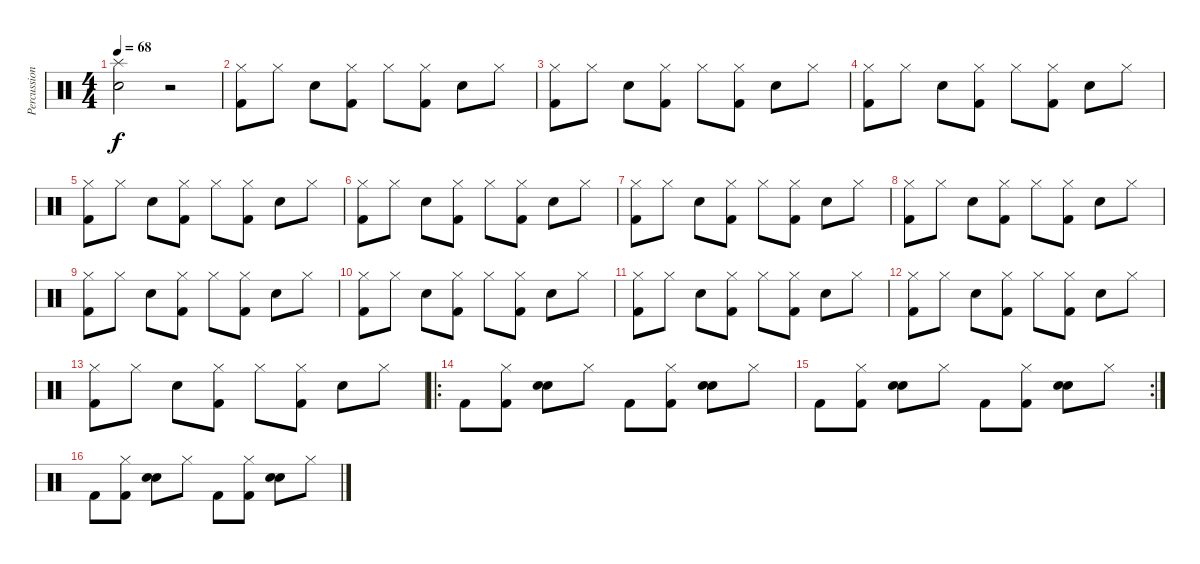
\track ("Percussions" "Percussion") {instrument percussion}
\staff {score}
\articulation defaults
\ts (4 4)
\tempo 68
\clef neutral
\ks c
("Snare (hit) 2" "Splash (hit)").2{dy f} r.2 |
("Hi-Hat (closed)" "Kick (hit) 2").8 "Hi-Hat (closed)".8 "Snare (hit) 2".8 ("Hi-Hat (closed)" "Kick (hit) 2").8 "Hi-Hat (closed)".8 ("Hi-Hat (closed)" "Kick (hit) 2").8 "Snare (hit) 2".8 "Hi-Hat (closed)".8 |
("Hi-Hat (closed)" "Kick (hit) 2").8 "Hi-Hat (closed)".8 "Snare (hit) 2".8 ("Hi-Hat (closed)" "Kick (hit) 2").8 "Hi-Hat (closed)".8 ("Hi-Hat (closed)" "Kick (hit) 2").8 "Snare (hit) 2".8 "Hi-Hat (closed)".8 |
("Hi-Hat (closed)" "Kick (hit) 2").8 "Hi-Hat (closed)".8 "Snare (hit) 2".8 ("Hi-Hat (closed)" "Kick (hit) 2").8 "Hi-Hat (closed)".8 ("Hi-Hat (closed)" "Kick (hit) 2").8 "Snare (hit) 2".8 "Hi-Hat (closed)".8 |
("Hi-Hat (closed)" "Kick (hit) 2").8 "Hi-Hat (closed)".8 "Snare (hit) 2".8 ("Hi-Hat (closed)" "Kick (hit) 2").8 "Hi-Hat (closed)".8 ("Hi-Hat (closed)" "Kick (hit) 2").8 "Snare (hit) 2".8 "Hi-Hat (closed)".8 |
("Hi-Hat (closed)" "Kick (hit) 2").8 "Hi-Hat (closed)".8 "Snare (hit) 2".8 ("Hi-Hat (closed)" "Kick (hit) 2").8 "Hi-Hat (closed)".8 ("Hi-Hat (closed)" "Kick (hit) 2").8 "Snare (hit) 2".8 "Hi-Hat (closed)".8 |
("Hi-Hat (closed)" "Kick (hit) 2").8 "Hi-Hat (closed)".8 "Snare (hit) 2".8 ("Hi-Hat (closed)" "Kick (hit) 2").8 "Hi-Hat (closed)".8 ("Hi-Hat (closed)" "Kick (hit) 2").8 "Snare (hit) 2".8 "Hi-Hat (closed)".8 |
("Hi-Hat (closed)" "Kick (hit) 2").8 "Hi-Hat (closed)".8 "Snare (hit) 2".8 ("Hi-Hat (closed)" "Kick (hit) 2").8 "Hi-Hat (closed)".8 ("Hi-Hat (closed)" "Kick (hit) 2").8 "Snare (hit) 2".8 "Hi-Hat (closed)".8 |
("Hi-Hat (closed)" "Kick (hit) 2").8 "Hi-Hat (closed)".8 "Snare (hit) 2".8 ("Hi-Hat (closed)" "Kick (hit) 2").8 "Hi-Hat (closed)".8 ("Hi-Hat (closed)" "Kick (hit) 2").8 "Snare (hit) 2".8 "Hi-Hat (closed)".8 |
("Hi-Hat (closed)" "Kick (hit) 2").8 "Hi-Hat (closed)".8 "Snare (hit) 2".8 ("Hi-Hat (closed)" "Kick (hit) 2").8 "Hi-Hat (closed)".8 ("Hi-Hat (closed)" "Kick (hit) 2").8 "Snare (hit) 2".8 "Hi-Hat (closed)".8 |
("Hi-Hat (closed)" "Kick (hit) 2").8 "Hi-Hat (closed)".8 "Snare (hit) 2".8 ("Hi-Hat (closed)" "Kick (hit) 2").8 "Hi-Hat (closed)".8 ("Hi-Hat (closed)" "Kick (hit) 2").8 "Snare (hit) 2".8 "Hi-Hat (closed)".8 |
("Hi-Hat (closed)" "Kick (hit) 2").8 "Hi-Hat (closed)".8 "Snare (hit) 2".8 ("Hi-Hat (closed)" "Kick (hit) 2").8 "Hi-Hat (closed)".8 ("Hi-Hat (closed)" "Kick (hit) 2").8 "Snare (hit) 2".8 "Hi-Hat (closed)".8 |
("Hi-Hat (closed)" "Kick (hit) 2").8 "Hi-Hat (closed)".8 "Snare (hit) 2".8 ("Hi-Hat (closed)" "Kick (hit) 2").8 "Hi-Hat (closed)".8 ("Hi-Hat (closed)" "Kick (hit) 2").8 "Snare (hit) 2".8 "Hi-Hat (closed)".8 |
\ro "Kick (hit) 2".8
("Hi-Hat (closed)" "Kick (hit) 2").8 ("Snare (hit) 2" "Electric Snare (hit)").8 "Hi-Hat (closed)".8 "Kick (hit) 2".8 ("Hi-Hat (closed)" "Kick (hit) 2").8 ("Snare (hit) 2" "Electric Snare (hit)").8 "Hi-Hat (closed)".8 |
\rc 2 "Kick (hit) 2".8
("Hi-Hat (closed)" "Kick (hit) 2").8 ("Snare (hit) 2" "Electric Snare (hit)").8 "Hi-Hat (closed)".8 "Kick (hit) 2".8 ("Hi-Hat (closed)" "Kick (hit) 2").8 ("Snare (hit) 2" "Electric Snare (hit)").8 "Hi-Hat (closed)".8 |
"Kick (hit) 2".8 ("Hi-Hat (closed)" "Kick (hit) 2").8 ("Snare (hit) 2" "Electric Snare (hit)").8 "Hi-Hat (closed)".8 "Kick (hit) 2".8 ("Hi-Hat (closed)" "Kick (hit) 2").8 ("Snare (hit) 2" "Electric Snare (hit)").8 "Hi-Hat (closed)".8
